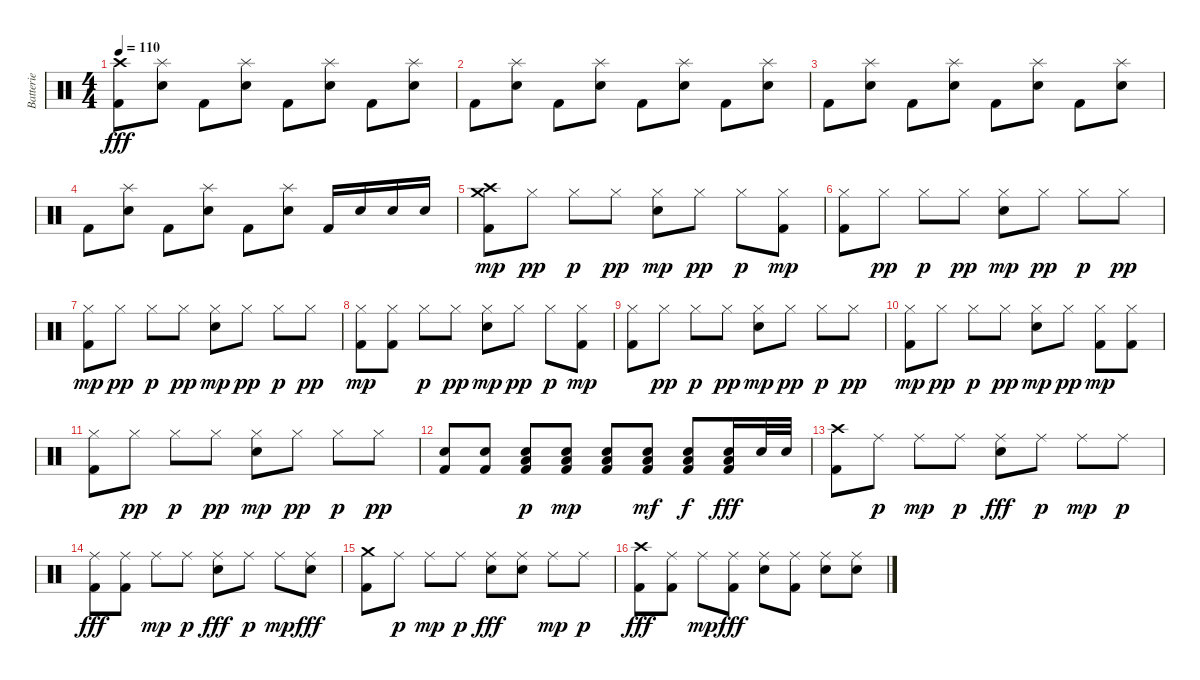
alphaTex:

\track ("Batterie" "Batterie") {instrument percussion}
\staff {score}
\articulation defaults
\ts (4 4)
\tempo 110
\clef neutral
\ks c
("Crash high (hit)" "Kick (hit) 2").8{dy fff} ("Splash (hit)" "Electric Snare (hit)").8 "Kick (hit) 2".8 ("Splash (hit)" "Electric Snare (hit)").8 "Kick (hit) 2".8 ("Splash (hit)" "Electric Snare (hit)").8 "Kick (hit) 2".8 ("Splash (hit)" "Electric Snare (hit)").8 |
"Kick (hit) 2".8 ("Splash (hit)" "Electric Snare (hit)").8 "Kick (hit) 2".8 ("Splash (hit)" "Electric Snare (hit)").8 "Kick (hit) 2".8 ("Splash (hit)" "Electric Snare (hit)").8 "Kick (hit) 2".8 ("Splash (hit)" "Electric Snare (hit)").8 |
"Kick (hit) 2".8 ("Splash (hit)" "Electric Snare (hit)").8 "Kick (hit) 2".8 ("Splash (hit)" "Electric Snare (hit)").8 "Kick (hit) 2".8 ("Splash (hit)" "Electric Snare (hit)").8 "Kick (hit) 2".8 ("Splash (hit)" "Electric Snare (hit)").8 |
"Kick (hit) 2".8 ("Splash (hit)" "Electric Snare (hit)").8 "Kick (hit) 2".8 ("Splash (hit)" "Electric Snare (hit)").8 "Kick (hit) 2".8 ("Splash (hit)" "Electric Snare (hit)").8 "Kick (hit) 2".16 "Electric Snare (hit)".16 "Electric Snare (hit)".16 "Electric Snare (hit)".16 |
("Crash high (hit)" "Crash medium (hit)" "Kick (hit) 2").8{dy mp} "Hi-Hat (closed)".8{dy pp} "Hi-Hat (closed)".8{dy p} "Hi-Hat (closed)".8{dy pp} ("Hi-Hat (closed)" "Electric Snare (hit)").8{dy mp} "Hi-Hat (closed)".8{dy pp} "Hi-Hat (closed)".8{dy p} ("Hi-Hat (closed)" "Kick (hit) 2").8{dy mp} |
("Hi-Hat (closed)" "Kick (hit) 2").8 "Hi-Hat (closed)".8{dy pp} "Hi-Hat (closed)".8{dy p} "Hi-Hat (closed)".8{dy pp} ("Hi-Hat (closed)" "Electric Snare (hit)").8{dy mp} "Hi-Hat (closed)".8{dy pp} "Hi-Hat (closed)".8{dy p} "Hi-Hat (closed)".8{dy pp} |
("Hi-Hat (closed)" "Kick (hit) 2").8{dy mp} "Hi-Hat (closed)".8{dy pp} "Hi-Hat (closed)".8{dy p} "Hi-Hat (closed)".8{dy pp} ("Hi-Hat (closed)" "Electric Snare (hit)").8{dy mp} "Hi-Hat (closed)".8{dy pp} "Hi-Hat (closed)".8{dy p} "Hi-Hat (closed)".8{dy pp} |
("Hi-Hat (closed)" "Kick (hit) 2").8{dy mp} ("Hi-Hat (closed)" "Kick (hit) 2").8 "Hi-Hat (closed)".8{dy p} "Hi-Hat (closed)".8{dy pp} ("Hi-Hat (closed)" "Electric Snare (hit)").8{dy mp} "Hi-Hat (closed)".8{dy pp} "Hi-Hat (closed)".8{dy p} ("Hi-Hat (closed)" "Kick (hit) 2").8{dy mp} |
("Hi-Hat (closed)" "Kick (hit) 2").8 "Hi-Hat (closed)".8{dy pp} "Hi-Hat (closed)".8{dy p} "Hi-Hat (closed)".8{dy pp} ("Hi-Hat (closed)" "Electric Snare (hit)").8{dy mp} "Hi-Hat (closed)".8{dy pp} "Hi-Hat (closed)".8{dy p} "Hi-Hat (closed)".8{dy pp} |
("Hi-Hat (closed)" "Kick (hit) 2").8{dy mp} "Hi-Hat (closed)".8{dy pp} "Hi-Hat (closed)".8{dy p} "Hi-Hat (closed)".8{dy pp} ("Hi-Hat (closed)" "Electric Snare (hit)").8{dy mp} "Hi-Hat (closed)".8{dy pp} ("Hi-Hat (closed)" "Kick (hit) 2").8{dy mp} ("Hi-Hat (closed)" "Kick (hit) 2").8 |
("Hi-Hat (closed)" "Kick (hit) 2").8 "Hi-Hat (closed)".8{dy pp} "Hi-Hat (closed)".8{dy p} "Hi-Hat (closed)".8{dy pp} ("Hi-Hat (closed)" "Electric Snare (hit)").8{dy mp} "Hi-Hat (closed)".8{dy pp} "Hi-Hat (closed)".8{dy p} "Hi-Hat (closed)".8{dy pp} |
("Electric Snare (hit)" "Kick (hit) 2").8 ("Electric Snare (hit)" "Kick (hit) 2").8 ("Low Floor Tom (hit)" "Electric Snare (hit)" "Kick (hit) 2").8{dy p} ("Low Floor Tom (hit)" "Electric Snare (hit)" "Kick (hit) 2").8{dy mp} ("Low Floor Tom (hit)" "Electric Snare (hit)" "Kick (hit) 2").8 ("Low Floor Tom (hit)" "Electric Snare (hit)" "Kick (hit) 2").8{dy mf} ("Low Floor Tom (hit)" "Electric Snare (hit)" "Kick (hit) 2").8{dy f} ("Low Floor Tom (hit)" "Electric Snare (hit)" "Kick (hit) 2").16{dy fff} "Electric Snare (hit)".32 "Electric Snare (hit)".32 |
("Crash high (hit)" "Kick (hit) 2").8 "Ride (middle)".8{dy p} "Ride (middle)".8{dy mp} "Ride (middle)".8{dy p} ("Ride (middle)" "Electric Snare (hit)").8{dy fff} "Ride (middle)".8{dy p} "Ride (middle)".8{dy mp} "Ride (middle)".8{dy p} |
("Ride (middle)" "Kick (hit) 2").8{dy fff} ("Ride (middle)" "Kick (hit) 2").8 "Ride (middle)".8{dy mp} "Ride (middle)".8{dy p} ("Ride (middle)" "Electric Snare (hit)").8{dy fff} "Ride (middle)".8{dy p} "Ride (middle)".8{dy mp} ("Ride (middle)" "Electric Snare (hit)").8{dy fff} |
("Crash medium (hit)" "Kick (hit) 2").8 "Ride (middle)".8{dy p} "Ride (middle)".8{dy mp} "Ride (middle)".8{dy p} ("Ride (middle)" "Electric Snare (hit)").8{dy fff} ("Ride (middle)" "Electric Snare (hit)").8 "Ride (middle)".8{dy mp} "Ride (middle)".8{dy p} |
("Crash high (hit)" "Kick (hit) 2").8{dy fff} ("Ride (middle)" "Kick (hit) 2").8 "Ride (middle)".8{dy mp} ("Ride (middle)" "Kick (hit) 2").8{dy fff} ("Ride (middle)" "Electric Snare (hit)").8 ("Ride (middle)" "Kick (hit) 2").8 ("Ride (middle)" "Electric Snare (hit)").8 ("Ride (middle)" "Electric Snare (hit)").8
